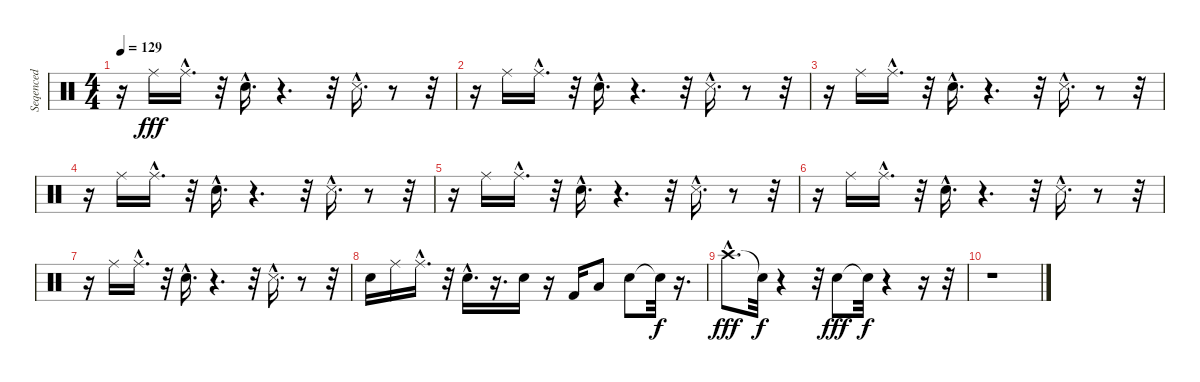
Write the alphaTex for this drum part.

\track (" Seqenced by Juri D." " Seqenced ") {instrument percussion}
\staff {score}
\articulation defaults
\ts (4 4)
\tempo 129
\clef neutral
\ks c
r.16{dy fff} "Ride (middle)".16 "Ride (middle)"{hac}.16{d} r.32 "Electric Snare (hit)"{hac}.16{d} r.4{d} r.32 "Snare (side stick) 3"{hac}.16{d} r.8 r.32 |
r.16 "Ride (middle)".16 "Ride (middle)"{hac}.16{d} r.32 "Electric Snare (hit)"{hac}.16{d} r.4{d} r.32 "Snare (side stick) 3"{hac}.16{d} r.8 r.32 |
r.16 "Ride (middle)".16 "Ride (middle)"{hac}.16{d} r.32 "Electric Snare (hit)"{hac}.16{d} r.4{d} r.32 "Snare (side stick) 3"{hac}.16{d} r.8 r.32 |
r.16 "Ride (middle)".16 "Ride (middle)"{hac}.16{d} r.32 "Electric Snare (hit)"{hac}.16{d} r.4{d} r.32 "Snare (side stick) 3"{hac}.16{d} r.8 r.32 |
r.16 "Ride (middle)".16 "Ride (middle)"{hac}.16{d} r.32 "Electric Snare (hit)"{hac}.16{d} r.4{d} r.32 "Snare (side stick) 3"{hac}.16{d} r.8 r.32 |
r.16 "Ride (middle)".16 "Ride (middle)"{hac}.16{d} r.32 "Electric Snare (hit)"{hac}.16{d} r.4{d} r.32 "Snare (side stick) 3"{hac}.16{d} r.8 r.32 |
r.16 "Ride (middle)".16 "Ride (middle)"{hac}.16{d} r.32 "Electric Snare (hit)"{hac}.16{d} r.4{d} r.32 "Snare (side stick) 3"{hac}.16{d} r.8 r.32 |
"Snare (hit) 2".16 "Ride (middle)".16 "Ride (middle)"{hac}.16{d} r.32 "Snare (hit) 2"{hac}.16{d} r.16{d} "Snare (hit) 2".16 r.16 "Kick (hit) 2".16 "Low Floor Tom (hit)".8 "Electric Snare (hit)".8 "Snare (hit)"{t}.32{dy f} r.16{d} |
"Crash high (hit)"{hac}.8{d dy fff} "Snare (hit)"{t}.32{dy f} r.4 r.32 "Snare (hit) 2".8{dy fff} "Snare (hit)"{t}.32{dy f} r.4 r.16 r.32 |
r.1
